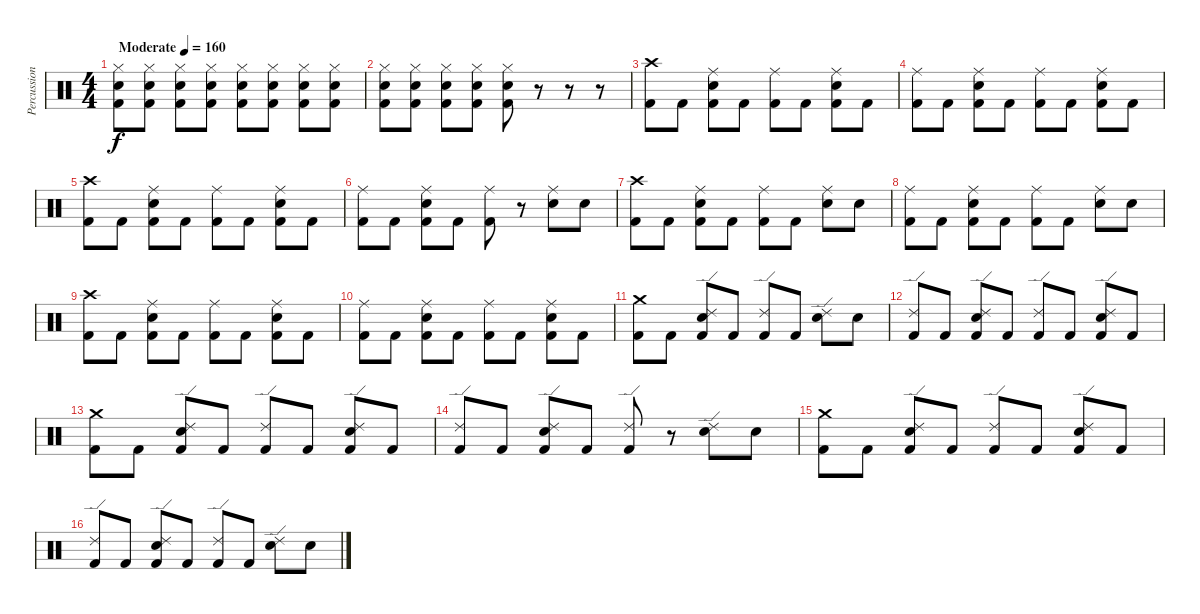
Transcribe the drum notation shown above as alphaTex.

\track ("Percussion" "Percussion") {instrument percussion}
\staff {score}
\articulation defaults
\ts (4 4)
\tempo (160 "Moderate")
\clef neutral
\ks c
("Hi-Hat (closed)" "Electric Snare (hit)" "Kick (hit) 2").8{dy f} ("Hi-Hat (closed)" "Electric Snare (hit)" "Kick (hit) 2").8 ("Hi-Hat (closed)" "Electric Snare (hit)" "Kick (hit) 2").8 ("Hi-Hat (closed)" "Electric Snare (hit)" "Kick (hit) 2").8 ("Hi-Hat (closed)" "Electric Snare (hit)" "Kick (hit) 2").8 ("Hi-Hat (closed)" "Electric Snare (hit)" "Kick (hit) 2").8 ("Hi-Hat (closed)" "Electric Snare (hit)" "Kick (hit) 2").8 ("Hi-Hat (closed)" "Electric Snare (hit)" "Kick (hit) 2").8 |
("Hi-Hat (closed)" "Electric Snare (hit)" "Kick (hit) 2").8 ("Hi-Hat (closed)" "Electric Snare (hit)" "Kick (hit) 2").8 ("Hi-Hat (closed)" "Electric Snare (hit)" "Kick (hit) 2").8 ("Hi-Hat (closed)" "Electric Snare (hit)" "Kick (hit) 2").8 ("Hi-Hat (closed)" "Electric Snare (hit)" "Kick (hit) 2").8 r.8 r.8 r.8 |
("Crash high (hit)" "Kick (hit) 2").8 "Kick (hit) 2".8 ("Ride (middle)" "Electric Snare (hit)" "Kick (hit) 2").8 "Kick (hit) 2".8 ("Ride (middle)" "Kick (hit) 2").8 "Kick (hit) 2".8 ("Ride (middle)" "Electric Snare (hit)" "Kick (hit) 2").8 "Kick (hit) 2".8 |
("Ride (middle)" "Kick (hit) 2").8 "Kick (hit) 2".8 ("Ride (middle)" "Electric Snare (hit)" "Kick (hit) 2").8 "Kick (hit) 2".8 ("Ride (middle)" "Kick (hit) 2").8 "Kick (hit) 2".8 ("Ride (middle)" "Electric Snare (hit)" "Kick (hit) 2").8 "Kick (hit) 2".8 |
("Crash high (hit)" "Kick (hit) 2").8 "Kick (hit) 2".8 ("Ride (middle)" "Electric Snare (hit)" "Kick (hit) 2").8 "Kick (hit) 2".8 ("Ride (middle)" "Kick (hit) 2").8 "Kick (hit) 2".8 ("Ride (middle)" "Electric Snare (hit)" "Kick (hit) 2").8 "Kick (hit) 2".8 |
("Ride (middle)" "Kick (hit) 2").8 "Kick (hit) 2".8 ("Ride (middle)" "Electric Snare (hit)" "Kick (hit) 2").8 "Kick (hit) 2".8 ("Ride (middle)" "Kick (hit) 2").8 r.8 ("Ride (middle)" "Electric Snare (hit)").8 "Electric Snare (hit)".8 |
("Crash high (hit)" "Kick (hit) 2").8 "Kick (hit) 2".8 ("Ride (middle)" "Electric Snare (hit)" "Kick (hit) 2").8 "Kick (hit) 2".8 ("Ride (middle)" "Kick (hit) 2").8 "Kick (hit) 2".8 ("Ride (middle)" "Electric Snare (hit)").8 "Electric Snare (hit)".8 |
("Ride (middle)" "Kick (hit) 2").8 "Kick (hit) 2".8 ("Ride (middle)" "Electric Snare (hit)" "Kick (hit) 2").8 "Kick (hit) 2".8 ("Ride (middle)" "Kick (hit) 2").8 "Kick (hit) 2".8 ("Ride (middle)" "Electric Snare (hit)").8 "Electric Snare (hit)".8 |
("Crash high (hit)" "Kick (hit) 2").8 "Kick (hit) 2".8 ("Ride (middle)" "Electric Snare (hit)" "Kick (hit) 2").8 "Kick (hit) 2".8 ("Ride (middle)" "Kick (hit) 2").8 "Kick (hit) 2".8 ("Ride (middle)" "Electric Snare (hit)" "Kick (hit) 2").8 "Kick (hit) 2".8 |
("Ride (middle)" "Kick (hit) 2").8 "Kick (hit) 2".8 ("Ride (middle)" "Electric Snare (hit)" "Kick (hit) 2").8 "Kick (hit) 2".8 ("Ride (middle)" "Kick (hit) 2").8 "Kick (hit) 2".8 ("Ride (middle)" "Electric Snare (hit)" "Kick (hit) 2").8 "Kick (hit) 2".8 |
("Crash medium (hit)" "Kick (hit) 2").8 "Kick (hit) 2".8 ("Ride (edge) 2" "Electric Snare (hit)" "Kick (hit) 2").8 "Kick (hit) 2".8 ("Ride (edge) 2" "Kick (hit) 2").8 "Kick (hit) 2".8 ("Ride (edge) 2" "Electric Snare (hit)").8 "Electric Snare (hit)".8 |
("Ride (edge) 2" "Kick (hit) 2").8 "Kick (hit) 2".8 ("Ride (edge) 2" "Electric Snare (hit)" "Kick (hit) 2").8 "Kick (hit) 2".8 ("Ride (edge) 2" "Kick (hit) 2").8 "Kick (hit) 2".8 ("Ride (edge) 2" "Electric Snare (hit)" "Kick (hit) 2").8 "Kick (hit) 2".8 |
("Crash medium (hit)" "Kick (hit) 2").8 "Kick (hit) 2".8 ("Ride (edge) 2" "Electric Snare (hit)" "Kick (hit) 2").8 "Kick (hit) 2".8 ("Ride (edge) 2" "Kick (hit) 2").8 "Kick (hit) 2".8 ("Ride (edge) 2" "Electric Snare (hit)" "Kick (hit) 2").8 "Kick (hit) 2".8 |
("Ride (edge) 2" "Kick (hit) 2").8 "Kick (hit) 2".8 ("Ride (edge) 2" "Electric Snare (hit)" "Kick (hit) 2").8 "Kick (hit) 2".8 ("Ride (edge) 2" "Kick (hit) 2").8 r.8 ("Ride (edge) 2" "Electric Snare (hit)").8 "Electric Snare (hit)".8 |
("Crash medium (hit)" "Kick (hit) 2").8 "Kick (hit) 2".8 ("Ride (edge) 2" "Electric Snare (hit)" "Kick (hit) 2").8 "Kick (hit) 2".8 ("Ride (edge) 2" "Kick (hit) 2").8 "Kick (hit) 2".8 ("Ride (edge) 2" "Electric Snare (hit)" "Kick (hit) 2").8 "Kick (hit) 2".8 |
("Ride (edge) 2" "Kick (hit) 2").8 "Kick (hit) 2".8 ("Ride (edge) 2" "Electric Snare (hit)" "Kick (hit) 2").8 "Kick (hit) 2".8 ("Ride (edge) 2" "Kick (hit) 2").8 "Kick (hit) 2".8 ("Ride (edge) 2" "Electric Snare (hit)").8 "Electric Snare (hit)".8
